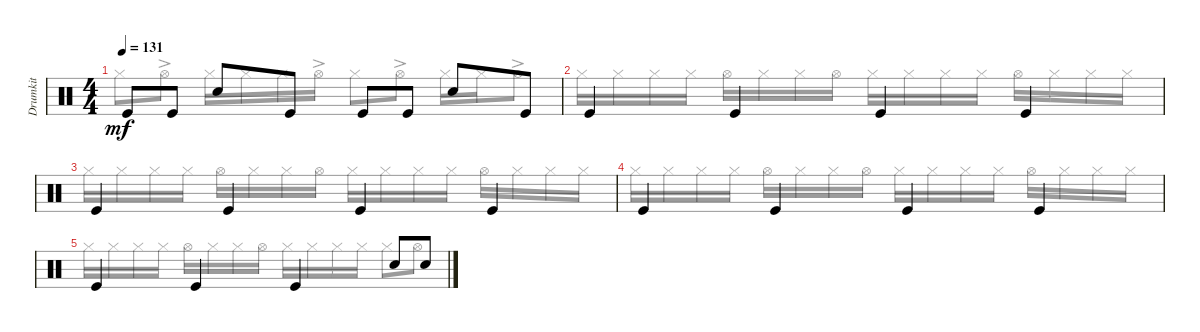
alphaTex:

\track ("Drumkit" "Drumkit") {instrument percussion}
\staff {score}
\articulation defaults
\voice
\ts (4 4)
\tempo 131
\clef neutral
\ks c "Kick (hit)".8{dy mf} "Kick (hit)".8 "Snare (hit) 2".8 "Kick (hit)".8 "Kick (hit)".8 "Kick (hit)".8 "Snare (hit) 2".8 "Kick (hit)".8
|
"Kick (hit)".4 "Kick (hit)".4 "Kick (hit)".4 "Kick (hit)".4 |
"Kick (hit)".4 "Kick (hit)".4 "Kick (hit)".4 "Kick (hit)".4 |
"Kick (hit)".4 "Kick (hit)".4 "Kick (hit)".4 "Kick (hit)".4 |
"Kick (hit)".4 "Kick (hit)".4 "Kick (hit)".4 "Snare (hit) 2".8 "Snare (hit) 2".8 |
\voice
\clef neutral
\ottava regular
\simile none
\ks c "Hi-Hat (closed)".8{dy mf} "Hi-Hat (open)"{ac}.8 "Hi-Hat (closed)".16 "Hi-Hat (closed)".16 "Hi-Hat (closed)".16 "Hi-Hat (open)"{ac}.16 "Hi-Hat (closed)".8 "Hi-Hat (open)"{ac}.8 "Hi-Hat (closed)".16 "Hi-Hat (closed)".16 "Hi-Hat (open)"{ac}.8
|
"Hi-Hat (closed)".16 "Hi-Hat (closed)".16 "Hi-Hat (closed)".16 "Hi-Hat (closed)".16 "Hi-Hat (open)".16 "Hi-Hat (closed)".16 "Hi-Hat (closed)".16 "Hi-Hat (open)".16 "Hi-Hat (closed)".16 "Hi-Hat (closed)".16 "Hi-Hat (closed)".16 "Hi-Hat (closed)".16 "Hi-Hat (open)".16 "Hi-Hat (closed)".16 "Hi-Hat (closed)".16 "Hi-Hat (closed)".16 |
"Hi-Hat (closed)".16 "Hi-Hat (closed)".16 "Hi-Hat (closed)".16 "Hi-Hat (closed)".16 "Hi-Hat (open)".16 "Hi-Hat (closed)".16 "Hi-Hat (closed)".16 "Hi-Hat (open)".16 "Hi-Hat (closed)".16 "Hi-Hat (closed)".16 "Hi-Hat (closed)".16 "Hi-Hat (closed)".16 "Hi-Hat (open)".16 "Hi-Hat (closed)".16 "Hi-Hat (closed)".16 "Hi-Hat (closed)".16 |
"Hi-Hat (closed)".16 "Hi-Hat (closed)".16 "Hi-Hat (closed)".16 "Hi-Hat (closed)".16 "Hi-Hat (open)".16 "Hi-Hat (closed)".16 "Hi-Hat (closed)".16 "Hi-Hat (open)".16 "Hi-Hat (closed)".16 "Hi-Hat (closed)".16 "Hi-Hat (closed)".16 "Hi-Hat (closed)".16 "Hi-Hat (open)".16 "Hi-Hat (closed)".16 "Hi-Hat (closed)".16 "Hi-Hat (closed)".16 |
"Hi-Hat (closed)".16 "Hi-Hat (closed)".16 "Hi-Hat (closed)".16 "Hi-Hat (closed)".16 "Hi-Hat (open)".16 "Hi-Hat (closed)".16 "Hi-Hat (closed)".16 "Hi-Hat (open)".16 "Hi-Hat (closed)".16 "Hi-Hat (closed)".16 "Hi-Hat (closed)".16 "Hi-Hat (closed)".16 "Hi-Hat (closed)".8 "Hi-Hat (open)".8 |
